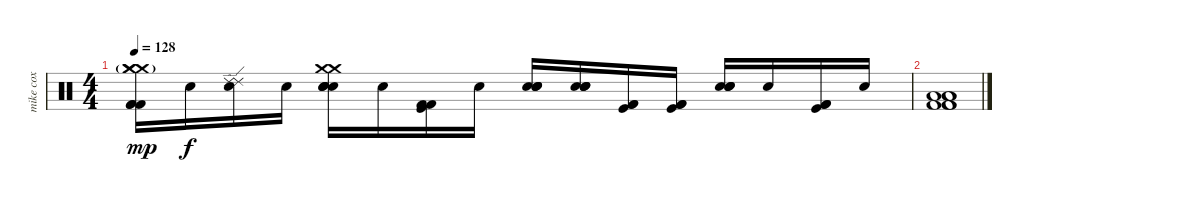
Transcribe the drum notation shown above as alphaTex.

\track ("mike cox" "mike cox") {instrument percussion}
\staff {score}
\articulation defaults
\ts (4 4)
\tempo 128
\clef neutral
\ks c
("Crash medium (hit)" "Crash medium (hit)" "Crash medium (hit)"{g} "Kick (hit) 2" "Kick (hit) 2" "Kick (hit) 2").16{dy mp} "Snare (hit)".16{dy f} ("Ride (edge) 2" "Ride (edge) 2" "Snare (hit)").16 "Snare (hit)".16 ("Electric Snare (hit)" "Electric Snare (hit)" "Snare (hit) 2" "Crash medium (hit)" "Crash medium (hit)" "Snare (hit)").16 "Snare (hit)".16 ("Kick (hit)" "Kick (hit) 2" "Kick (hit) 2").16 "Snare (hit)".16 ("Electric Snare (hit)" "Electric Snare (hit)" "Snare (hit) 2" "Snare (hit)").16 ("Electric Snare (hit)" "Electric Snare (hit)" "Snare (hit) 2" "Snare (hit)").16 ("Kick (hit) 2" "Kick (hit) 2" "Kick (hit)").16 ("Kick (hit)" "Kick (hit) 2" "Kick (hit) 2").16 ("Electric Snare (hit)" "Electric Snare (hit)" "Snare (hit) 2" "Snare (hit)").16 "Snare (hit)".16 ("Kick (hit)" "Kick (hit) 2" "Kick (hit) 2").16 "Snare (hit)".16 |
("Low Floor Tom (hit)" "Low Floor Tom (hit)" "Low Floor Tom (hit)" "Kick (hit) 2" "Kick (hit) 2" "Kick (hit) 2").1
